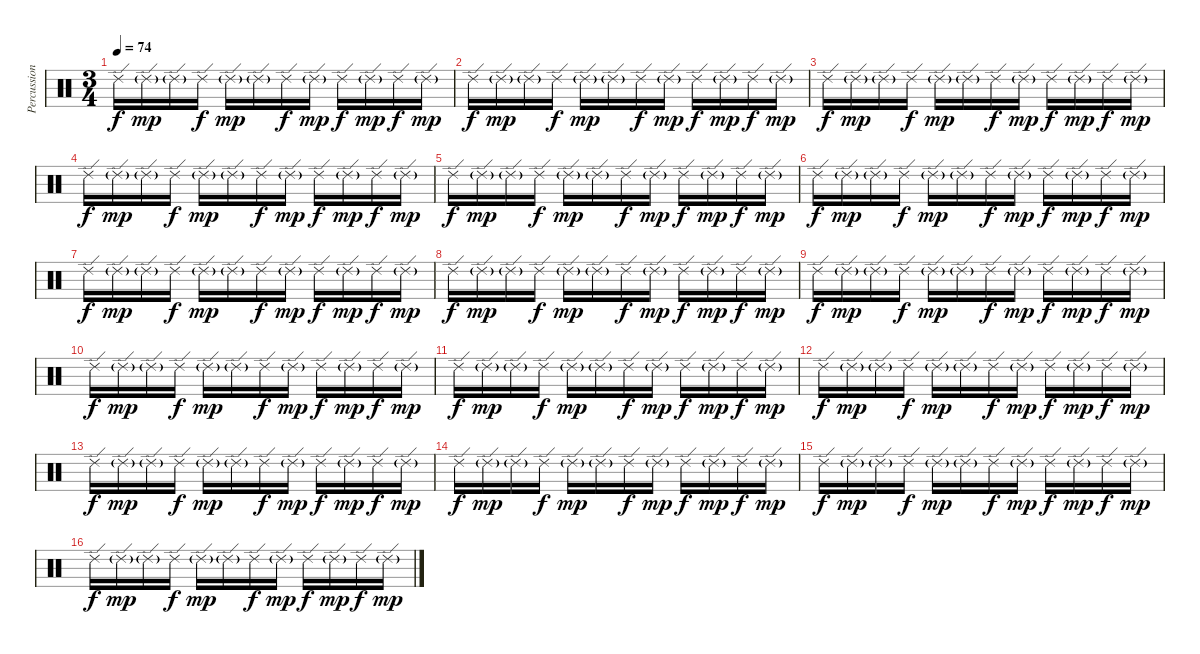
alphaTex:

\track ("Percussion" "Percussion") {instrument percussion}
\staff {score}
\articulation defaults
\ts (3 4)
\tempo 74
\clef neutral
\ks c "Ride (edge) 2".16{dy f} "Ride (edge) 2"{g}.16{dy mp} "Ride (edge) 2"{g}.16 "Ride (edge) 2".16{dy f} "Ride (edge) 2"{g}.16{dy mp} "Ride (edge) 2"{g}.16 "Ride (edge) 2".16{dy f} "Ride (edge) 2"{g}.16{dy mp} "Ride (edge) 2".16{dy f} "Ride (edge) 2"{g}.16{dy mp} "Ride (edge) 2".16{dy f} "Ride (edge) 2"{g}.16{dy mp}
|
"Ride (edge) 2".16{dy f} "Ride (edge) 2"{g}.16{dy mp} "Ride (edge) 2"{g}.16 "Ride (edge) 2".16{dy f} "Ride (edge) 2"{g}.16{dy mp} "Ride (edge) 2"{g}.16 "Ride (edge) 2".16{dy f} "Ride (edge) 2"{g}.16{dy mp} "Ride (edge) 2".16{dy f} "Ride (edge) 2"{g}.16{dy mp} "Ride (edge) 2".16{dy f} "Ride (edge) 2"{g}.16{dy mp} |
"Ride (edge) 2".16{dy f} "Ride (edge) 2"{g}.16{dy mp} "Ride (edge) 2"{g}.16 "Ride (edge) 2".16{dy f} "Ride (edge) 2"{g}.16{dy mp} "Ride (edge) 2"{g}.16 "Ride (edge) 2".16{dy f} "Ride (edge) 2"{g}.16{dy mp} "Ride (edge) 2".16{dy f} "Ride (edge) 2"{g}.16{dy mp} "Ride (edge) 2".16{dy f} "Ride (edge) 2"{g}.16{dy mp} |
"Ride (edge) 2".16{dy f} "Ride (edge) 2"{g}.16{dy mp} "Ride (edge) 2"{g}.16 "Ride (edge) 2".16{dy f} "Ride (edge) 2"{g}.16{dy mp} "Ride (edge) 2"{g}.16 "Ride (edge) 2".16{dy f} "Ride (edge) 2"{g}.16{dy mp} "Ride (edge) 2".16{dy f} "Ride (edge) 2"{g}.16{dy mp} "Ride (edge) 2".16{dy f} "Ride (edge) 2"{g}.16{dy mp} |
"Ride (edge) 2".16{dy f} "Ride (edge) 2"{g}.16{dy mp} "Ride (edge) 2"{g}.16 "Ride (edge) 2".16{dy f} "Ride (edge) 2"{g}.16{dy mp} "Ride (edge) 2"{g}.16 "Ride (edge) 2".16{dy f} "Ride (edge) 2"{g}.16{dy mp} "Ride (edge) 2".16{dy f} "Ride (edge) 2"{g}.16{dy mp} "Ride (edge) 2".16{dy f} "Ride (edge) 2"{g}.16{dy mp} |
"Ride (edge) 2".16{dy f} "Ride (edge) 2"{g}.16{dy mp} "Ride (edge) 2"{g}.16 "Ride (edge) 2".16{dy f} "Ride (edge) 2"{g}.16{dy mp} "Ride (edge) 2"{g}.16 "Ride (edge) 2".16{dy f} "Ride (edge) 2"{g}.16{dy mp} "Ride (edge) 2".16{dy f} "Ride (edge) 2"{g}.16{dy mp} "Ride (edge) 2".16{dy f} "Ride (edge) 2"{g}.16{dy mp} |
"Ride (edge) 2".16{dy f} "Ride (edge) 2"{g}.16{dy mp} "Ride (edge) 2"{g}.16 "Ride (edge) 2".16{dy f} "Ride (edge) 2"{g}.16{dy mp} "Ride (edge) 2"{g}.16 "Ride (edge) 2".16{dy f} "Ride (edge) 2"{g}.16{dy mp} "Ride (edge) 2".16{dy f} "Ride (edge) 2"{g}.16{dy mp} "Ride (edge) 2".16{dy f} "Ride (edge) 2"{g}.16{dy mp} |
"Ride (edge) 2".16{dy f} "Ride (edge) 2"{g}.16{dy mp} "Ride (edge) 2"{g}.16 "Ride (edge) 2".16{dy f} "Ride (edge) 2"{g}.16{dy mp} "Ride (edge) 2"{g}.16 "Ride (edge) 2".16{dy f} "Ride (edge) 2"{g}.16{dy mp} "Ride (edge) 2".16{dy f} "Ride (edge) 2"{g}.16{dy mp} "Ride (edge) 2".16{dy f} "Ride (edge) 2"{g}.16{dy mp} |
"Ride (edge) 2".16{dy f} "Ride (edge) 2"{g}.16{dy mp} "Ride (edge) 2"{g}.16 "Ride (edge) 2".16{dy f} "Ride (edge) 2"{g}.16{dy mp} "Ride (edge) 2"{g}.16 "Ride (edge) 2".16{dy f} "Ride (edge) 2"{g}.16{dy mp} "Ride (edge) 2".16{dy f} "Ride (edge) 2"{g}.16{dy mp} "Ride (edge) 2".16{dy f} "Ride (edge) 2"{g}.16{dy mp} |
"Ride (edge) 2".16{dy f} "Ride (edge) 2"{g}.16{dy mp} "Ride (edge) 2"{g}.16 "Ride (edge) 2".16{dy f} "Ride (edge) 2"{g}.16{dy mp} "Ride (edge) 2"{g}.16 "Ride (edge) 2".16{dy f} "Ride (edge) 2"{g}.16{dy mp} "Ride (edge) 2".16{dy f} "Ride (edge) 2"{g}.16{dy mp} "Ride (edge) 2".16{dy f} "Ride (edge) 2"{g}.16{dy mp} |
"Ride (edge) 2".16{dy f} "Ride (edge) 2"{g}.16{dy mp} "Ride (edge) 2"{g}.16 "Ride (edge) 2".16{dy f} "Ride (edge) 2"{g}.16{dy mp} "Ride (edge) 2"{g}.16 "Ride (edge) 2".16{dy f} "Ride (edge) 2"{g}.16{dy mp} "Ride (edge) 2".16{dy f} "Ride (edge) 2"{g}.16{dy mp} "Ride (edge) 2".16{dy f} "Ride (edge) 2"{g}.16{dy mp} |
"Ride (edge) 2".16{dy f} "Ride (edge) 2"{g}.16{dy mp} "Ride (edge) 2"{g}.16 "Ride (edge) 2".16{dy f} "Ride (edge) 2"{g}.16{dy mp} "Ride (edge) 2"{g}.16 "Ride (edge) 2".16{dy f} "Ride (edge) 2"{g}.16{dy mp} "Ride (edge) 2".16{dy f} "Ride (edge) 2"{g}.16{dy mp} "Ride (edge) 2".16{dy f} "Ride (edge) 2"{g}.16{dy mp} |
"Ride (edge) 2".16{dy f} "Ride (edge) 2"{g}.16{dy mp} "Ride (edge) 2"{g}.16 "Ride (edge) 2".16{dy f} "Ride (edge) 2"{g}.16{dy mp} "Ride (edge) 2"{g}.16 "Ride (edge) 2".16{dy f} "Ride (edge) 2"{g}.16{dy mp} "Ride (edge) 2".16{dy f} "Ride (edge) 2"{g}.16{dy mp} "Ride (edge) 2".16{dy f} "Ride (edge) 2"{g}.16{dy mp} |
"Ride (edge) 2".16{dy f} "Ride (edge) 2"{g}.16{dy mp} "Ride (edge) 2"{g}.16 "Ride (edge) 2".16{dy f} "Ride (edge) 2"{g}.16{dy mp} "Ride (edge) 2"{g}.16 "Ride (edge) 2".16{dy f} "Ride (edge) 2"{g}.16{dy mp} "Ride (edge) 2".16{dy f} "Ride (edge) 2"{g}.16{dy mp} "Ride (edge) 2".16{dy f} "Ride (edge) 2"{g}.16{dy mp} |
"Ride (edge) 2".16{dy f} "Ride (edge) 2"{g}.16{dy mp} "Ride (edge) 2"{g}.16 "Ride (edge) 2".16{dy f} "Ride (edge) 2"{g}.16{dy mp} "Ride (edge) 2"{g}.16 "Ride (edge) 2".16{dy f} "Ride (edge) 2"{g}.16{dy mp} "Ride (edge) 2".16{dy f} "Ride (edge) 2"{g}.16{dy mp} "Ride (edge) 2".16{dy f} "Ride (edge) 2"{g}.16{dy mp} |
"Ride (edge) 2".16{dy f} "Ride (edge) 2"{g}.16{dy mp} "Ride (edge) 2"{g}.16 "Ride (edge) 2".16{dy f} "Ride (edge) 2"{g}.16{dy mp} "Ride (edge) 2"{g}.16 "Ride (edge) 2".16{dy f} "Ride (edge) 2"{g}.16{dy mp} "Ride (edge) 2".16{dy f} "Ride (edge) 2"{g}.16{dy mp} "Ride (edge) 2".16{dy f} "Ride (edge) 2"{g}.16{dy mp}
